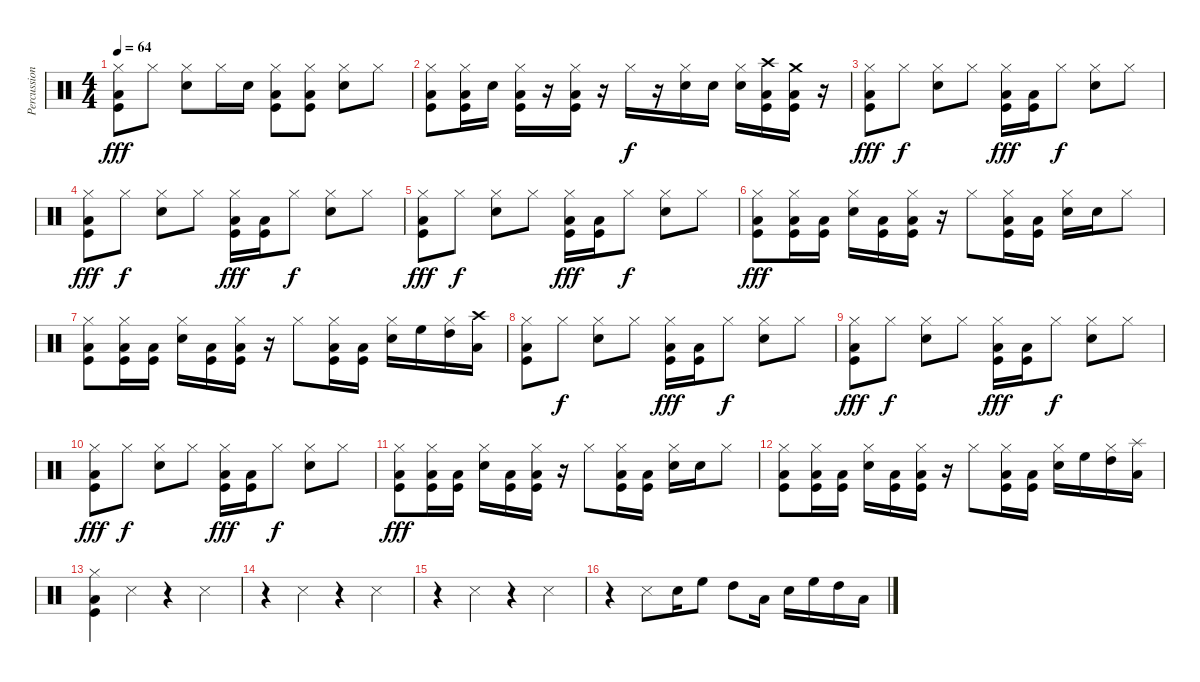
\track ("Percussions" "Percussion") {instrument percussion}
\staff {score}
\articulation defaults
\ts (4 4)
\tempo 64
\clef neutral
\ks c
("Hi-Hat (closed)" "Low Floor Tom (hit)" "Kick (hit)").8{dy fff} "Hi-Hat (closed)".8 ("Hi-Hat (closed)" "Electric Snare (hit)").8 "Hi-Hat (closed)".16 "Electric Snare (hit)".16 ("Hi-Hat (closed)" "Low Floor Tom (hit)" "Kick (hit)").8 ("Hi-Hat (closed)" "Low Floor Tom (hit)" "Kick (hit)").8 ("Hi-Hat (closed)" "Electric Snare (hit)").8 "Hi-Hat (closed)".8 |
("Hi-Hat (closed)" "Low Floor Tom (hit)" "Kick (hit)").8 ("Hi-Hat (closed)" "Low Floor Tom (hit)" "Kick (hit)").16 "Electric Snare (hit)".16 ("Hi-Hat (closed)" "Low Floor Tom (hit)" "Kick (hit)").16 r.16 ("Hi-Hat (closed)" "Low Floor Tom (hit)" "Kick (hit)").16 r.16 "Hi-Hat (closed)".16{dy f} r.16 ("Hi-Hat (closed)" "Electric Snare (hit)").16 "Electric Snare (hit)".16 ("Hi-Hat (closed)" "Electric Snare (hit)").16 ("Crash high (hit)" "Low Floor Tom (hit)" "Kick (hit)").16 ("Crash medium (hit)" "Low Floor Tom (hit)" "Kick (hit)").16 r.16 |
("Hi-Hat (closed)" "Low Floor Tom (hit)" "Kick (hit)").8{dy fff} "Hi-Hat (closed)".8{dy f} ("Hi-Hat (closed)" "Electric Snare (hit)").8 "Hi-Hat (closed)".8 ("Hi-Hat (closed)" "Low Floor Tom (hit)" "Kick (hit)").16{dy fff} ("Low Floor Tom (hit)" "Kick (hit)").16 "Hi-Hat (closed)".8{dy f} ("Hi-Hat (closed)" "Electric Snare (hit)").8 "Hi-Hat (closed)".8 |
("Hi-Hat (closed)" "Low Floor Tom (hit)" "Kick (hit)").8{dy fff} "Hi-Hat (closed)".8{dy f} ("Hi-Hat (closed)" "Electric Snare (hit)").8 "Hi-Hat (closed)".8 ("Hi-Hat (closed)" "Low Floor Tom (hit)" "Kick (hit)").16{dy fff} ("Low Floor Tom (hit)" "Kick (hit)").16 "Hi-Hat (closed)".8{dy f} ("Hi-Hat (closed)" "Electric Snare (hit)").8 "Hi-Hat (closed)".8 |
("Hi-Hat (closed)" "Low Floor Tom (hit)" "Kick (hit)").8{dy fff} "Hi-Hat (closed)".8{dy f} ("Hi-Hat (closed)" "Electric Snare (hit)").8 "Hi-Hat (closed)".8 ("Hi-Hat (closed)" "Low Floor Tom (hit)" "Kick (hit)").16{dy fff} ("Low Floor Tom (hit)" "Kick (hit)").16 "Hi-Hat (closed)".8{dy f} ("Hi-Hat (closed)" "Electric Snare (hit)").8 "Hi-Hat (closed)".8 |
("Hi-Hat (closed)" "Low Floor Tom (hit)" "Kick (hit)").8{dy fff} ("Hi-Hat (closed)" "Low Floor Tom (hit)" "Kick (hit)").16 ("Low Floor Tom (hit)" "Kick (hit)").16 ("Hi-Hat (closed)" "Electric Snare (hit)").16 ("Low Floor Tom (hit)" "Kick (hit)").16 ("Hi-Hat (closed)" "Low Floor Tom (hit)" "Kick (hit)").16 r.16 "Hi-Hat (closed)".8 ("Hi-Hat (closed)" "Low Floor Tom (hit)" "Kick (hit)").16 ("Low Floor Tom (hit)" "Kick (hit)").16 ("Hi-Hat (closed)" "Electric Snare (hit)").16 "Electric Snare (hit)".16 "Hi-Hat (closed)".8 |
("Hi-Hat (closed)" "Low Floor Tom (hit)" "Kick (hit)").8 ("Hi-Hat (closed)" "Low Floor Tom (hit)" "Kick (hit)").16 ("Low Floor Tom (hit)" "Kick (hit)").16 ("Hi-Hat (closed)" "Electric Snare (hit)").16 ("Low Floor Tom (hit)" "Kick (hit)").16 ("Hi-Hat (closed)" "Low Floor Tom (hit)" "Kick (hit)").16 r.16 "Hi-Hat (closed)".8 ("Hi-Hat (closed)" "Low Floor Tom (hit)" "Kick (hit)").16 ("Low Floor Tom (hit)" "Kick (hit)").16 ("Hi-Hat (closed)" "Electric Snare (hit)").16 "High Floor Tom (hit)".16 ("Hi-Hat (closed)" "High Tom (hit)").16 ("Crash high (hit)" "Low Tom (hit)").16 |
("Hi-Hat (closed)" "Low Floor Tom (hit)" "Kick (hit)").8 "Hi-Hat (closed)".8{dy f} ("Hi-Hat (closed)" "Electric Snare (hit)").8 "Hi-Hat (closed)".8 ("Hi-Hat (closed)" "Low Floor Tom (hit)" "Kick (hit)").16{dy fff} ("Low Floor Tom (hit)" "Kick (hit)").16 "Hi-Hat (closed)".8{dy f} ("Hi-Hat (closed)" "Electric Snare (hit)").8 "Hi-Hat (closed)".8 |
("Hi-Hat (closed)" "Low Floor Tom (hit)" "Kick (hit)").8{dy fff} "Hi-Hat (closed)".8{dy f} ("Hi-Hat (closed)" "Electric Snare (hit)").8 "Hi-Hat (closed)".8 ("Hi-Hat (closed)" "Low Floor Tom (hit)" "Kick (hit)").16{dy fff} ("Low Floor Tom (hit)" "Kick (hit)").16 "Hi-Hat (closed)".8{dy f} ("Hi-Hat (closed)" "Electric Snare (hit)").8 "Hi-Hat (closed)".8 |
("Hi-Hat (closed)" "Low Floor Tom (hit)" "Kick (hit)").8{dy fff} "Hi-Hat (closed)".8{dy f} ("Hi-Hat (closed)" "Electric Snare (hit)").8 "Hi-Hat (closed)".8 ("Hi-Hat (closed)" "Low Floor Tom (hit)" "Kick (hit)").16{dy fff} ("Low Floor Tom (hit)" "Kick (hit)").16 "Hi-Hat (closed)".8{dy f} ("Hi-Hat (closed)" "Electric Snare (hit)").8 "Hi-Hat (closed)".8 |
("Hi-Hat (closed)" "Low Floor Tom (hit)" "Kick (hit)").8{dy fff} ("Hi-Hat (closed)" "Low Floor Tom (hit)" "Kick (hit)").16 ("Low Floor Tom (hit)" "Kick (hit)").16 ("Hi-Hat (closed)" "Electric Snare (hit)").16 ("Low Floor Tom (hit)" "Kick (hit)").16 ("Hi-Hat (closed)" "Low Floor Tom (hit)" "Kick (hit)").16 r.16 "Hi-Hat (closed)".8 ("Hi-Hat (closed)" "Low Floor Tom (hit)" "Kick (hit)").16 ("Low Floor Tom (hit)" "Kick (hit)").16 ("Hi-Hat (closed)" "Electric Snare (hit)").16 "Electric Snare (hit)".16 "Hi-Hat (closed)".8 |
("Hi-Hat (closed)" "Low Floor Tom (hit)" "Kick (hit)").8 ("Hi-Hat (closed)" "Low Floor Tom (hit)" "Kick (hit)").16 ("Low Floor Tom (hit)" "Kick (hit)").16 ("Hi-Hat (closed)" "Electric Snare (hit)").16 ("Low Floor Tom (hit)" "Kick (hit)").16 ("Hi-Hat (closed)" "Low Floor Tom (hit)" "Kick (hit)").16 r.16 "Hi-Hat (closed)".8 ("Hi-Hat (closed)" "Low Floor Tom (hit)" "Kick (hit)").16 ("Low Floor Tom (hit)" "Kick (hit)").16 ("Hi-Hat (closed)" "Electric Snare (hit)").16 "High Floor Tom (hit)".16 ("Hi-Hat (closed)" "High Tom (hit)").16 ("Splash (hit)" "Low Tom (hit)").16 |
("Hi-Hat (closed)" "Low Floor Tom (hit)" "Kick (hit)").4 "Snare (side stick) 3".4 r.4 "Snare (side stick) 3".4 |
r.4 "Snare (side stick) 3".4 r.4 "Snare (side stick) 3".4 |
r.4 "Snare (side stick) 3".4 r.4 "Snare (side stick) 3".4 |
r.4 "Snare (side stick) 3".8 "Electric Snare (hit)".16 "High Floor Tom (hit)".8 "High Tom (hit)".8 "Low Tom (hit)".16 "Electric Snare (hit)".16 "High Floor Tom (hit)".16 "High Tom (hit)".16 "Low Tom (hit)".16
